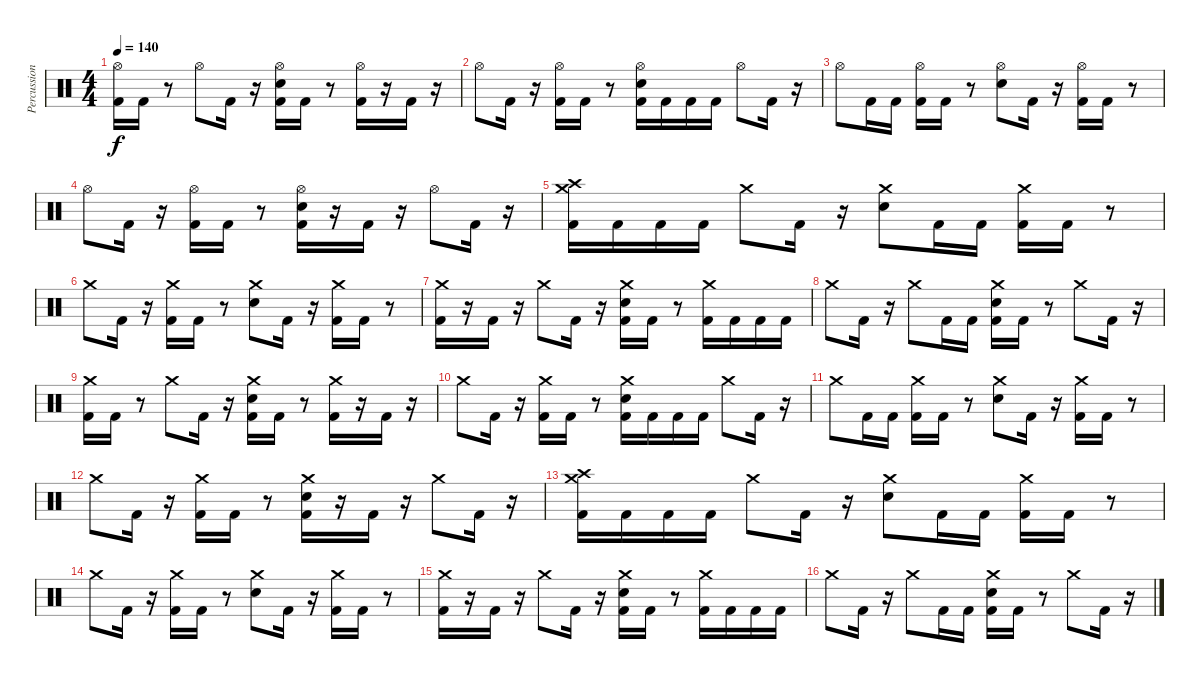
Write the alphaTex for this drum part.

\track ("Percussion" "Percussion") {instrument percussion}
\staff {score}
\articulation defaults
\ts (4 4)
\tempo 140
\clef neutral
\ks c
("Hi-Hat (open)" "Kick (hit) 2").16{dy f} "Kick (hit) 2".16 r.8 "Hi-Hat (open)".8 "Kick (hit) 2".16 r.16 ("Hi-Hat (open)" "Snare (hit) 2" "Kick (hit) 2").16 "Kick (hit) 2".16 r.8 ("Hi-Hat (open)" "Kick (hit) 2").16 r.16 "Kick (hit) 2".16 r.16 |
"Hi-Hat (open)".8 "Kick (hit) 2".16 r.16 ("Hi-Hat (open)" "Kick (hit) 2").16 "Kick (hit) 2".16 r.8 ("Hi-Hat (open)" "Snare (hit) 2" "Kick (hit) 2").16 "Kick (hit) 2".16 "Kick (hit) 2".16 "Kick (hit) 2".16 "Hi-Hat (open)".8 "Kick (hit) 2".16 r.16 |
"Hi-Hat (open)".8 "Kick (hit) 2".16 "Kick (hit) 2".16 ("Hi-Hat (open)" "Kick (hit) 2").16 "Kick (hit) 2".16 r.8 ("Hi-Hat (open)" "Snare (hit) 2").8 "Kick (hit) 2".16 r.16 ("Hi-Hat (open)" "Kick (hit) 2").16 "Kick (hit) 2".16 r.8 |
"Hi-Hat (open)".8 "Kick (hit) 2".16 r.16 ("Hi-Hat (open)" "Kick (hit) 2").16 "Kick (hit) 2".16 r.8 ("Hi-Hat (open)" "Snare (hit) 2" "Kick (hit) 2").16 r.16 "Kick (hit) 2".16 r.16 "Hi-Hat (open)".8 "Kick (hit) 2".16 r.16 |
("Crash medium (hit)" "Crash high (hit)" "Kick (hit) 2").16{volume 11} "Kick (hit) 2".16 "Kick (hit) 2".16 "Kick (hit) 2".16 "Crash medium (hit)".8 "Kick (hit) 2".16 r.16 ("Crash medium (hit)" "Snare (hit) 2").8 "Kick (hit) 2".16 "Kick (hit) 2".16 ("Crash medium (hit)" "Kick (hit) 2").16 "Kick (hit) 2".16 r.8 |
"Crash medium (hit)".8 "Kick (hit) 2".16 r.16 ("Crash medium (hit)" "Kick (hit) 2").16 "Kick (hit) 2".16 r.8 ("Crash medium (hit)" "Snare (hit) 2").8 "Kick (hit) 2".16 r.16 ("Crash medium (hit)" "Kick (hit) 2").16 "Kick (hit) 2".16 r.8 |
("Crash medium (hit)" "Kick (hit) 2").16 r.16 "Kick (hit) 2".16 r.16 "Crash medium (hit)".8 "Kick (hit) 2".16 r.16 ("Crash medium (hit)" "Snare (hit) 2" "Kick (hit) 2").16 "Kick (hit) 2".16 r.8 ("Crash medium (hit)" "Kick (hit) 2").16 "Kick (hit) 2".16 "Kick (hit) 2".16 "Kick (hit) 2".16 |
"Crash medium (hit)".8 "Kick (hit) 2".16 r.16 "Crash medium (hit)".8 "Kick (hit) 2".16 "Kick (hit) 2".16 ("Crash medium (hit)" "Snare (hit) 2" "Kick (hit) 2").16 "Kick (hit) 2".16 r.8 "Crash medium (hit)".8 "Kick (hit) 2".16 r.16 |
("Crash medium (hit)" "Kick (hit) 2").16{volume 8} "Kick (hit) 2".16 r.8 "Crash medium (hit)".8 "Kick (hit) 2".16 r.16 ("Crash medium (hit)" "Snare (hit) 2" "Kick (hit) 2").16 "Kick (hit) 2".16 r.8 ("Crash medium (hit)" "Kick (hit) 2").16 r.16 "Kick (hit) 2".16 r.16 |
"Crash medium (hit)".8 "Kick (hit) 2".16 r.16 ("Crash medium (hit)" "Kick (hit) 2").16 "Kick (hit) 2".16 r.8 ("Crash medium (hit)" "Snare (hit) 2" "Kick (hit) 2").16 "Kick (hit) 2".16 "Kick (hit) 2".16 "Kick (hit) 2".16 "Crash medium (hit)".8 "Kick (hit) 2".16 r.16 |
"Crash medium (hit)".8 "Kick (hit) 2".16 "Kick (hit) 2".16 ("Crash medium (hit)" "Kick (hit) 2").16 "Kick (hit) 2".16 r.8 ("Crash medium (hit)" "Snare (hit) 2").8 "Kick (hit) 2".16 r.16 ("Crash medium (hit)" "Kick (hit) 2").16 "Kick (hit) 2".16 r.8 |
"Crash medium (hit)".8 "Kick (hit) 2".16 r.16 ("Crash medium (hit)" "Kick (hit) 2").16 "Kick (hit) 2".16 r.8 ("Crash medium (hit)" "Snare (hit) 2" "Kick (hit) 2").16 r.16 "Kick (hit) 2".16 r.16 "Crash medium (hit)".8 "Kick (hit) 2".16 r.16 |
("Crash medium (hit)" "Crash high (hit)" "Kick (hit) 2").16{volume 5} "Kick (hit) 2".16 "Kick (hit) 2".16 "Kick (hit) 2".16 "Crash medium (hit)".8 "Kick (hit) 2".16 r.16 ("Crash medium (hit)" "Snare (hit) 2").8 "Kick (hit) 2".16 "Kick (hit) 2".16 ("Crash medium (hit)" "Kick (hit) 2").16 "Kick (hit) 2".16 r.8 |
"Crash medium (hit)".8 "Kick (hit) 2".16 r.16 ("Crash medium (hit)" "Kick (hit) 2").16 "Kick (hit) 2".16 r.8 ("Crash medium (hit)" "Snare (hit) 2").8 "Kick (hit) 2".16 r.16 ("Crash medium (hit)" "Kick (hit) 2").16 "Kick (hit) 2".16 r.8 |
("Crash medium (hit)" "Kick (hit) 2").16 r.16 "Kick (hit) 2".16 r.16 "Crash medium (hit)".8 "Kick (hit) 2".16 r.16 ("Crash medium (hit)" "Snare (hit) 2" "Kick (hit) 2").16 "Kick (hit) 2".16 r.8 ("Crash medium (hit)" "Kick (hit) 2").16 "Kick (hit) 2".16 "Kick (hit) 2".16 "Kick (hit) 2".16 |
"Crash medium (hit)".8 "Kick (hit) 2".16 r.16 "Crash medium (hit)".8 "Kick (hit) 2".16 "Kick (hit) 2".16 ("Crash medium (hit)" "Snare (hit) 2" "Kick (hit) 2").16 "Kick (hit) 2".16 r.8 "Crash medium (hit)".8 "Kick (hit) 2".16 r.16
